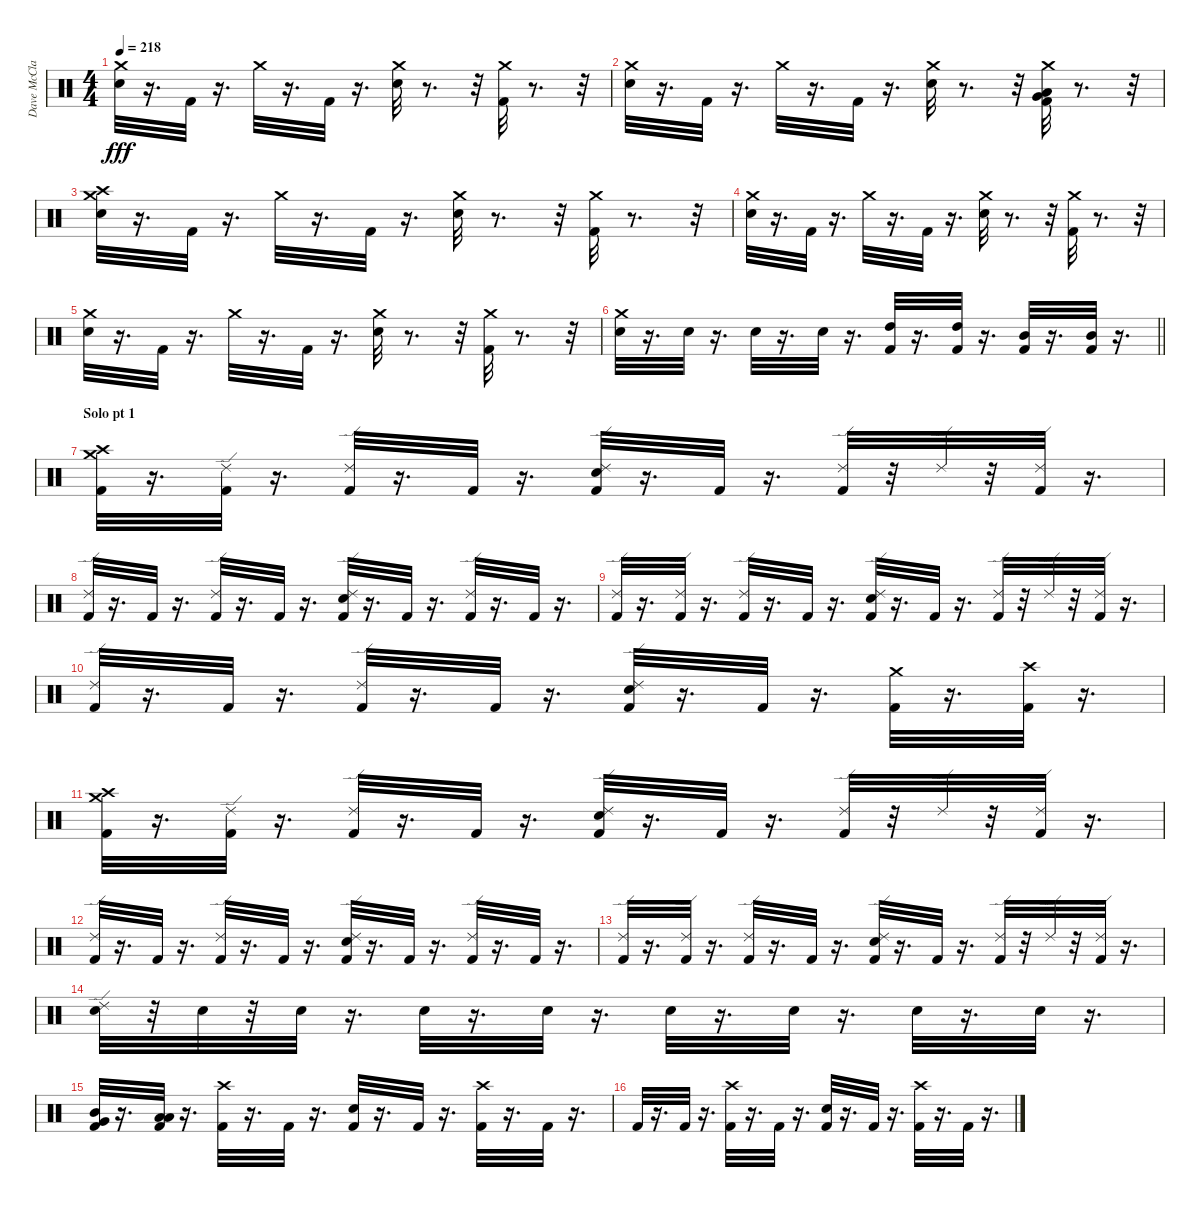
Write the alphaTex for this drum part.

\track ("Dave McClain" "Dave McCla") {instrument percussion}
\staff {score}
\articulation defaults
\ts (4 4)
\tempo 218
\clef neutral
\ks c
("Snare (hit) 2" "Crash medium (hit)").32{dy fff} r.16{d} "Kick (hit) 2".32 r.16{d} "Crash medium (hit)".32 r.16{d} "Kick (hit) 2".32 r.16{d} ("Snare (hit) 2" "Crash medium (hit)").32 r.8{d} r.32 ("Kick (hit) 2" "Crash medium (hit)").32 r.8{d} r.32 |
("Snare (hit) 2" "Crash medium (hit)").32 r.16{d} "Kick (hit) 2".32 r.16{d} "Crash medium (hit)".32 r.16{d} "Kick (hit) 2".32 r.16{d} ("Snare (hit) 2" "Crash medium (hit)").32 r.8{d} r.32 ("Very Low Tom (hit)" "Low Floor Tom (hit)" "Kick (hit) 2" "Crash medium (hit)").32 r.8{d} r.32 |
("Snare (hit) 2" "Crash medium (hit)" "Crash high (hit)").32 r.16{d} "Kick (hit) 2".32 r.16{d} "Crash medium (hit)".32 r.16{d} "Kick (hit) 2".32 r.16{d} ("Crash medium (hit)" "Snare (hit) 2").32 r.8{d} r.32 ("Kick (hit) 2" "Crash medium (hit)").32 r.8{d} r.32 |
("Snare (hit) 2" "Crash medium (hit)").32 r.16{d} "Kick (hit) 2".32 r.16{d} "Crash medium (hit)".32 r.16{d} "Kick (hit) 2".32 r.16{d} ("Snare (hit) 2" "Crash medium (hit)").32 r.8{d} r.32 ("Kick (hit) 2" "Crash medium (hit)").32 r.8{d} r.32 |
("Snare (hit) 2" "Crash medium (hit)").32 r.16{d} "Kick (hit) 2".32 r.16{d} "Crash medium (hit)".32 r.16{d} "Kick (hit) 2".32 r.16{d} ("Snare (hit) 2" "Crash medium (hit)").32 r.8{d} r.32 ("Kick (hit) 2" "Crash medium (hit)").32 r.8{d} r.32 |
\barLineRight lightlight
("Snare (hit) 2" "Crash medium (hit)").32 r.16{d} "Snare (hit) 2".32 r.16{d} "Snare (hit) 2".32 r.16{d} "Snare (hit) 2".32 r.16{d} ("Kick (hit) 2" "High Tom (hit)").32 r.16{d} ("Kick (hit) 2" "High Tom (hit)").32 r.16{d} ("Kick (hit) 2" "Mid Tom (hit)").32 r.16{d} ("Kick (hit) 2" "Mid Tom (hit)").32 r.16{d} |
\section ("" "Solo pt 1")
("Crash medium (hit)" "Crash high (hit)" "Kick (hit) 2").32 r.16{d} ("Ride (edge) 2" "Kick (hit) 2").32 r.16{d} ("Ride (edge) 2" "Kick (hit) 2").32 r.16{d} "Kick (hit) 2".32 r.16{d} ("Ride (edge) 2" "Snare (hit) 2" "Kick (hit) 2").32 r.16{d} "Kick (hit) 2".32 r.16{d} ("Ride (edge) 2" "Kick (hit) 2").32 r.32 "Ride (edge) 2".32 r.32 ("Ride (edge) 2" "Kick (hit) 2").32 r.16{d} |
("Ride (edge) 2" "Kick (hit) 2").32 r.16{d} "Kick (hit) 2".32 r.16{d} ("Ride (edge) 2" "Kick (hit) 2").32 r.16{d} "Kick (hit) 2".32 r.16{d} ("Ride (edge) 2" "Snare (hit) 2" "Kick (hit) 2").32 r.16{d} "Kick (hit) 2".32 r.16{d} ("Ride (edge) 2" "Kick (hit) 2").32 r.16{d} "Kick (hit) 2".32 r.16{d} |
("Ride (edge) 2" "Kick (hit) 2").32 r.16{d} ("Ride (edge) 2" "Kick (hit) 2").32 r.16{d} ("Ride (edge) 2" "Kick (hit) 2").32 r.16{d} "Kick (hit) 2".32 r.16{d} ("Ride (edge) 2" "Snare (hit) 2" "Kick (hit) 2").32 r.16{d} "Kick (hit) 2".32 r.16{d} ("Ride (edge) 2" "Kick (hit) 2").32 r.32 "Ride (edge) 2".32 r.32 ("Ride (edge) 2" "Kick (hit) 2").32 r.16{d} |
("Ride (edge) 2" "Kick (hit) 2").32 r.16{d} "Kick (hit) 2".32 r.16{d} ("Ride (edge) 2" "Kick (hit) 2").32 r.16{d} "Kick (hit) 2".32 r.16{d} ("Ride (edge) 2" "Snare (hit) 2" "Kick (hit) 2").32 r.16{d} "Kick (hit) 2".32 r.16{d} ("Crash medium (hit)" "Kick (hit) 2").32 r.16{d} ("Crash high (hit)" "Kick (hit) 2").32 r.16{d} |
("Crash medium (hit)" "Crash high (hit)" "Kick (hit) 2").32 r.16{d} ("Ride (edge) 2" "Kick (hit) 2").32 r.16{d} ("Ride (edge) 2" "Kick (hit) 2").32 r.16{d} "Kick (hit) 2".32 r.16{d} ("Ride (edge) 2" "Snare (hit) 2" "Kick (hit) 2").32 r.16{d} "Kick (hit) 2".32 r.16{d} ("Ride (edge) 2" "Kick (hit) 2").32 r.32 "Ride (edge) 2".32 r.32 ("Ride (edge) 2" "Kick (hit) 2").32 r.16{d} |
("Ride (edge) 2" "Kick (hit) 2").32 r.16{d} "Kick (hit) 2".32 r.16{d} ("Ride (edge) 2" "Kick (hit) 2").32 r.16{d} "Kick (hit) 2".32 r.16{d} ("Ride (edge) 2" "Snare (hit) 2" "Kick (hit) 2").32 r.16{d} "Kick (hit) 2".32 r.16{d} ("Ride (edge) 2" "Kick (hit) 2").32 r.16{d} "Kick (hit) 2".32 r.16{d} |
("Ride (edge) 2" "Kick (hit) 2").32 r.16{d} ("Ride (edge) 2" "Kick (hit) 2").32 r.16{d} ("Ride (edge) 2" "Kick (hit) 2").32 r.16{d} "Kick (hit) 2".32 r.16{d} ("Ride (edge) 2" "Snare (hit) 2" "Kick (hit) 2").32 r.16{d} "Kick (hit) 2".32 r.16{d} ("Ride (edge) 2" "Kick (hit) 2").32 r.32 "Ride (edge) 2".32 r.32 ("Ride (edge) 2" "Kick (hit) 2").32 r.16{d} |
("Snare (hit) 2" "Ride (edge) 2").32 r.32 "Snare (hit) 2".32 r.32 "Snare (hit) 2".32 r.16{d} "Snare (hit) 2".32 r.16{d} "Snare (hit) 2".32 r.16{d} "Snare (hit) 2".32 r.16{d} "Snare (hit) 2".32 r.16{d} "Snare (hit) 2".32 r.16{d} "Snare (hit) 2".32 r.16{d} |
("Very Low Tom (hit)" "Mid Tom (hit)" "Kick (hit) 2").32 r.16{d} ("Kick (hit) 2" "Low Tom (hit)" "Low Floor Tom (hit)").32 r.16{d} ("Kick (hit) 2" "Crash high (hit)").32 r.16{d} "Kick (hit) 2".32 r.16{d} ("Kick (hit) 2" "Snare (hit) 2").32 r.16{d} "Kick (hit) 2".32 r.16{d} ("Kick (hit) 2" "Crash high (hit)").32 r.16{d} "Kick (hit) 2".32 r.16{d} |
"Kick (hit) 2".32 r.16{d} "Kick (hit) 2".32 r.16{d} ("Kick (hit) 2" "Crash high (hit)").32 r.16{d} "Kick (hit) 2".32 r.16{d} ("Kick (hit) 2" "Snare (hit) 2").32 r.16{d} "Kick (hit) 2".32 r.16{d} ("Kick (hit) 2" "Crash high (hit)").32 r.16{d} "Kick (hit) 2".32 r.16{d}
